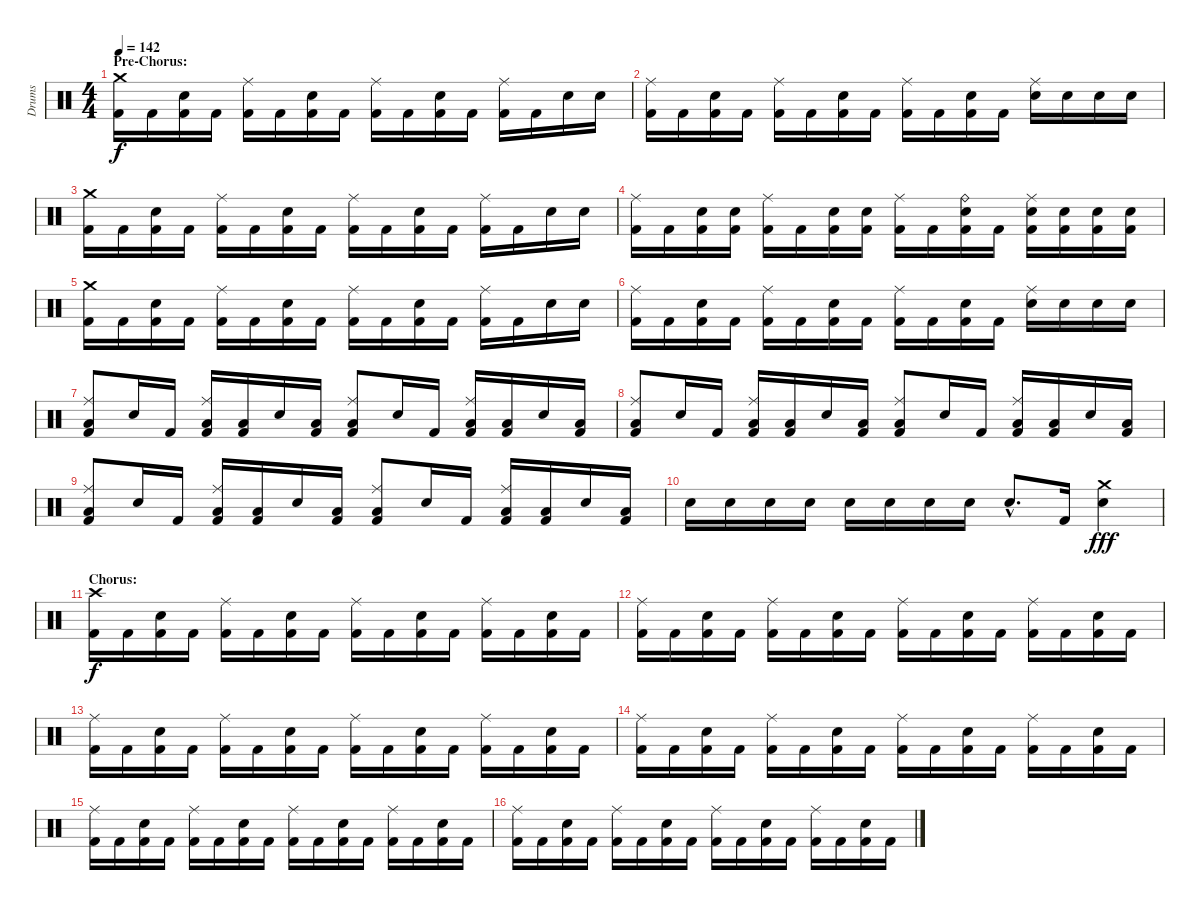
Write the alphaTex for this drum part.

\track ("Drums" "Drums") {instrument percussion}
\staff {score}
\articulation defaults
\ts (4 4)
\section ("" "Pre-Chorus:")
\tempo 142
\clef neutral
\ks c
("Crash medium (hit)" "Kick (hit) 2").16{dy f} "Kick (hit) 2".16 ("Electric Snare (hit)" "Kick (hit) 2").16 "Kick (hit) 2".16 ("Ride (middle)" "Kick (hit) 2").16 "Kick (hit) 2".16 ("Electric Snare (hit)" "Kick (hit) 2").16 "Kick (hit) 2".16 ("Ride (middle)" "Kick (hit) 2").16 "Kick (hit) 2".16 ("Electric Snare (hit)" "Kick (hit) 2").16 "Kick (hit) 2".16 ("Ride (middle)" "Kick (hit) 2").16 "Kick (hit) 2".16 "Electric Snare (hit)".16 "Electric Snare (hit)".16 |
("Ride (middle)" "Kick (hit) 2").16 "Kick (hit) 2".16 ("Electric Snare (hit)" "Kick (hit) 2").16 "Kick (hit) 2".16 ("Ride (middle)" "Kick (hit) 2").16 "Kick (hit) 2".16 ("Electric Snare (hit)" "Kick (hit) 2").16 "Kick (hit) 2".16 ("Ride (middle)" "Kick (hit) 2").16 "Kick (hit) 2".16 ("Electric Snare (hit)" "Kick (hit) 2").16 "Kick (hit) 2".16 ("Ride (middle)" "Electric Snare (hit)").16 "Electric Snare (hit)".16 "Electric Snare (hit)".16 "Electric Snare (hit)".16 |
("Crash medium (hit)" "Kick (hit) 2").16 "Kick (hit) 2".16 ("Electric Snare (hit)" "Kick (hit) 2").16 "Kick (hit) 2".16 ("Ride (middle)" "Kick (hit) 2").16 "Kick (hit) 2".16 ("Electric Snare (hit)" "Kick (hit) 2").16 "Kick (hit) 2".16 ("Ride (middle)" "Kick (hit) 2").16 "Kick (hit) 2".16 ("Electric Snare (hit)" "Kick (hit) 2").16 "Kick (hit) 2".16 ("Ride (middle)" "Kick (hit) 2").16 "Kick (hit) 2".16 "Electric Snare (hit)".16 "Electric Snare (hit)".16 |
("Ride (middle)" "Kick (hit) 2").16 "Kick (hit) 2".16 ("Electric Snare (hit)" "Kick (hit) 2").16 ("Electric Snare (hit)" "Kick (hit) 2").16 ("Ride (middle)" "Kick (hit) 2").16 "Kick (hit) 2".16 ("Electric Snare (hit)" "Kick (hit) 2").16 ("Electric Snare (hit)" "Kick (hit) 2").16 ("Ride (middle)" "Kick (hit) 2").16 "Kick (hit) 2".16 ("Ride (bell)" "Electric Snare (hit)" "Kick (hit) 2").16 "Kick (hit) 2".16 ("Ride (middle)" "Electric Snare (hit)" "Kick (hit) 2").16 ("Electric Snare (hit)" "Kick (hit) 2").16 ("Electric Snare (hit)" "Kick (hit) 2").16 ("Electric Snare (hit)" "Kick (hit) 2").16 |
("Crash medium (hit)" "Kick (hit) 2").16 "Kick (hit) 2".16 ("Electric Snare (hit)" "Kick (hit) 2").16 "Kick (hit) 2".16 ("Ride (middle)" "Kick (hit) 2").16 "Kick (hit) 2".16 ("Electric Snare (hit)" "Kick (hit) 2").16 "Kick (hit) 2".16 ("Ride (middle)" "Kick (hit) 2").16 "Kick (hit) 2".16 ("Electric Snare (hit)" "Kick (hit) 2").16 "Kick (hit) 2".16 ("Ride (middle)" "Kick (hit) 2").16 "Kick (hit) 2".16 "Electric Snare (hit)".16 "Electric Snare (hit)".16 |
("Ride (middle)" "Kick (hit) 2").16 "Kick (hit) 2".16 ("Electric Snare (hit)" "Kick (hit) 2").16 "Kick (hit) 2".16 ("Ride (middle)" "Kick (hit) 2").16 "Kick (hit) 2".16 ("Electric Snare (hit)" "Kick (hit) 2").16 "Kick (hit) 2".16 ("Ride (middle)" "Kick (hit) 2").16 "Kick (hit) 2".16 ("Electric Snare (hit)" "Kick (hit) 2").16 "Kick (hit) 2".16 ("Ride (middle)" "Electric Snare (hit)").16 "Electric Snare (hit)".16 "Electric Snare (hit)".16 "Electric Snare (hit)".16 |
("Ride (middle)" "Low Floor Tom (hit)" "Kick (hit) 2").8 "Electric Snare (hit)".16 "Kick (hit) 2".16 ("Ride (middle)" "Low Floor Tom (hit)" "Kick (hit) 2").16 ("Low Floor Tom (hit)" "Kick (hit) 2").16 "Electric Snare (hit)".16 ("Low Floor Tom (hit)" "Kick (hit) 2").16 ("Ride (middle)" "Low Floor Tom (hit)" "Kick (hit) 2").8 "Electric Snare (hit)".16 "Kick (hit) 2".16 ("Ride (middle)" "Low Floor Tom (hit)" "Kick (hit) 2").16 ("Low Floor Tom (hit)" "Kick (hit) 2").16 "Electric Snare (hit)".16 ("Low Floor Tom (hit)" "Kick (hit) 2").16 |
("Ride (middle)" "Low Floor Tom (hit)" "Kick (hit) 2").8 "Electric Snare (hit)".16 "Kick (hit) 2".16 ("Ride (middle)" "Low Floor Tom (hit)" "Kick (hit) 2").16 ("Low Floor Tom (hit)" "Kick (hit) 2").16 "Electric Snare (hit)".16 ("Low Floor Tom (hit)" "Kick (hit) 2").16 ("Ride (middle)" "Low Floor Tom (hit)" "Kick (hit) 2").8 "Electric Snare (hit)".16 "Kick (hit) 2".16 ("Ride (middle)" "Low Floor Tom (hit)" "Kick (hit) 2").16 ("Low Floor Tom (hit)" "Kick (hit) 2").16 "Electric Snare (hit)".16 ("Low Floor Tom (hit)" "Kick (hit) 2").16 |
("Ride (middle)" "Low Floor Tom (hit)" "Kick (hit) 2").8 "Electric Snare (hit)".16 "Kick (hit) 2".16 ("Ride (middle)" "Low Floor Tom (hit)" "Kick (hit) 2").16 ("Low Floor Tom (hit)" "Kick (hit) 2").16 "Electric Snare (hit)".16 ("Low Floor Tom (hit)" "Kick (hit) 2").16 ("Ride (middle)" "Low Floor Tom (hit)" "Kick (hit) 2").8 "Electric Snare (hit)".16 "Kick (hit) 2".16 ("Ride (middle)" "Low Floor Tom (hit)" "Kick (hit) 2").16 ("Low Floor Tom (hit)" "Kick (hit) 2").16 "Electric Snare (hit)".16 ("Low Floor Tom (hit)" "Kick (hit) 2").16 |
"Electric Snare (hit)".16 "Electric Snare (hit)".16 "Electric Snare (hit)".16 "Electric Snare (hit)".16 "Electric Snare (hit)".16 "Electric Snare (hit)".16 "Electric Snare (hit)".16 "Electric Snare (hit)".16 "Electric Snare (hit)"{hac}.8{d} "Kick (hit) 2".16 ("Crash medium (hit)" "Electric Snare (hit)").4{dy fff} |
\section ("" "Chorus:")
("Crash high (hit)" "Kick (hit) 2").16{dy f} "Kick (hit) 2".16 ("Electric Snare (hit)" "Kick (hit) 2").16 "Kick (hit) 2".16 ("Ride (middle)" "Kick (hit) 2").16 "Kick (hit) 2".16 ("Electric Snare (hit)" "Kick (hit) 2").16 "Kick (hit) 2".16 ("Ride (middle)" "Kick (hit) 2").16 "Kick (hit) 2".16 ("Electric Snare (hit)" "Kick (hit) 2").16 "Kick (hit) 2".16 ("Ride (middle)" "Kick (hit) 2").16 "Kick (hit) 2".16 ("Electric Snare (hit)" "Kick (hit) 2").16 "Kick (hit) 2".16 |
("Ride (middle)" "Kick (hit) 2").16 "Kick (hit) 2".16 ("Electric Snare (hit)" "Kick (hit) 2").16 "Kick (hit) 2".16 ("Ride (middle)" "Kick (hit) 2").16 "Kick (hit) 2".16 ("Electric Snare (hit)" "Kick (hit) 2").16 "Kick (hit) 2".16 ("Ride (middle)" "Kick (hit) 2").16 "Kick (hit) 2".16 ("Electric Snare (hit)" "Kick (hit) 2").16 "Kick (hit) 2".16 ("Ride (middle)" "Kick (hit) 2").16 "Kick (hit) 2".16 ("Electric Snare (hit)" "Kick (hit) 2").16 "Kick (hit) 2".16 |
("Ride (middle)" "Kick (hit) 2").16 "Kick (hit) 2".16 ("Electric Snare (hit)" "Kick (hit) 2").16 "Kick (hit) 2".16 ("Ride (middle)" "Kick (hit) 2").16 "Kick (hit) 2".16 ("Electric Snare (hit)" "Kick (hit) 2").16 "Kick (hit) 2".16 ("Ride (middle)" "Kick (hit) 2").16 "Kick (hit) 2".16 ("Electric Snare (hit)" "Kick (hit) 2").16 "Kick (hit) 2".16 ("Ride (middle)" "Kick (hit) 2").16 "Kick (hit) 2".16 ("Electric Snare (hit)" "Kick (hit) 2").16 "Kick (hit) 2".16 |
("Ride (middle)" "Kick (hit) 2").16 "Kick (hit) 2".16 ("Electric Snare (hit)" "Kick (hit) 2").16 "Kick (hit) 2".16 ("Ride (middle)" "Kick (hit) 2").16 "Kick (hit) 2".16 ("Electric Snare (hit)" "Kick (hit) 2").16 "Kick (hit) 2".16 ("Ride (middle)" "Kick (hit) 2").16 "Kick (hit) 2".16 ("Electric Snare (hit)" "Kick (hit) 2").16 "Kick (hit) 2".16 ("Ride (middle)" "Kick (hit) 2").16 "Kick (hit) 2".16 ("Electric Snare (hit)" "Kick (hit) 2").16 "Kick (hit) 2".16 |
("Ride (middle)" "Kick (hit) 2").16 "Kick (hit) 2".16 ("Electric Snare (hit)" "Kick (hit) 2").16 "Kick (hit) 2".16 ("Ride (middle)" "Kick (hit) 2").16 "Kick (hit) 2".16 ("Electric Snare (hit)" "Kick (hit) 2").16 "Kick (hit) 2".16 ("Ride (middle)" "Kick (hit) 2").16 "Kick (hit) 2".16 ("Electric Snare (hit)" "Kick (hit) 2").16 "Kick (hit) 2".16 ("Ride (middle)" "Kick (hit) 2").16 "Kick (hit) 2".16 ("Electric Snare (hit)" "Kick (hit) 2").16 "Kick (hit) 2".16 |
("Ride (middle)" "Kick (hit) 2").16 "Kick (hit) 2".16 ("Electric Snare (hit)" "Kick (hit) 2").16 "Kick (hit) 2".16 ("Ride (middle)" "Kick (hit) 2").16 "Kick (hit) 2".16 ("Electric Snare (hit)" "Kick (hit) 2").16 "Kick (hit) 2".16 ("Ride (middle)" "Kick (hit) 2").16 "Kick (hit) 2".16 ("Electric Snare (hit)" "Kick (hit) 2").16 "Kick (hit) 2".16 ("Ride (middle)" "Kick (hit) 2").16 "Kick (hit) 2".16 ("Electric Snare (hit)" "Kick (hit) 2").16 "Kick (hit) 2".16
